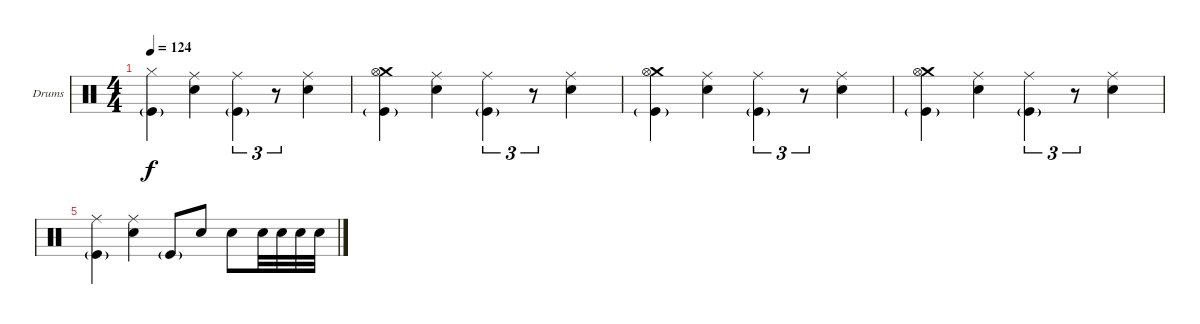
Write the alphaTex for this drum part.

\bracketExtendMode nobrackets
\firstSystemTrackNameOrientation horizontal
\otherSystemsTrackNameOrientation horizontal
\defaultBarNumberDisplay FirstOfSystem
\track ("Drumkit" "Drums") {instrument percussion}
\staff {score}
\articulation defaults
\ts (4 4)
\tempo 124
\clef neutral
\ks c
("Kick (hit)"{g} "Hi-Hat (closed)").4{dy f} ("Snare (hit) 2" "Ride (middle)").4 ("Kick (hit)"{g} "Ride (middle)").4{tu (3 2)} r.8{tu (3 2)} ("Snare (hit) 2" "Ride (middle)").4 |
("Kick (hit)"{g} "Crash medium (hit)" "Hi-Hat (open)").4 ("Snare (hit) 2" "Ride (middle)").4 ("Kick (hit)"{g} "Ride (middle)").4{tu (3 2)} r.8{tu (3 2)} ("Snare (hit) 2" "Ride (middle)").4 |
("Kick (hit)"{g} "Crash medium (hit)" "Hi-Hat (open)").4 ("Snare (hit) 2" "Ride (middle)").4 ("Kick (hit)"{g} "Ride (middle)").4{tu (3 2)} r.8{tu (3 2)} ("Snare (hit) 2" "Ride (middle)").4 |
("Kick (hit)"{g} "Crash medium (hit)" "Hi-Hat (open)").4 ("Snare (hit) 2" "Ride (middle)").4 ("Kick (hit)"{g} "Ride (middle)").4{tu (3 2)} r.8{tu (3 2)} ("Snare (hit) 2" "Ride (middle)").4 |
("Kick (hit)"{g} "Ride (middle)").4 ("Snare (hit) 2" "Ride (middle)").4 "Kick (hit)"{g}.8 "Snare (hit) 2".8 "Snare (hit) 2".8 "Snare (hit) 2".32 "Snare (hit) 2".32 "Snare (hit) 2".32 "Snare (hit) 2".32
